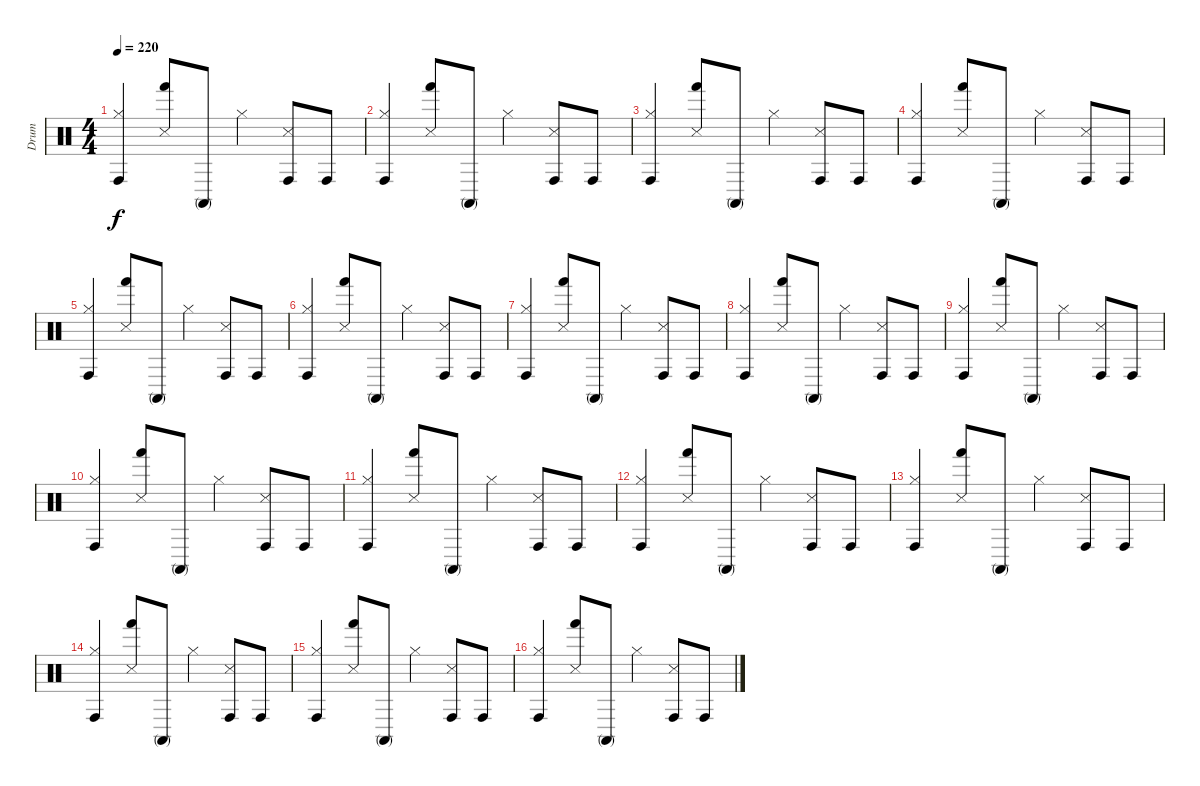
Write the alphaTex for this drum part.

\track ("Drum" "Drum") {instrument percussion}
\staff {score}
\articulation defaults
\ts (4 4)
\tempo 220
\clef neutral
\ks c
("Hi-Hat (closed)" "Conga high (hit)").4{dy f} ("Metronome (hit)" "Hand (hit)").8 "Conga high (mute)".8 "Hi-Hat (closed)".4 ("Metronome (hit)" "Conga high (hit)").8 "Conga high (hit)".8 |
("Hi-Hat (closed)" "Conga high (hit)").4 ("Metronome (hit)" "Hand (hit)").8 "Conga high (mute)".8 "Hi-Hat (closed)".4 ("Metronome (hit)" "Conga high (hit)").8 "Conga high (hit)".8 |
("Hi-Hat (closed)" "Conga high (hit)").4 ("Metronome (hit)" "Hand (hit)").8 "Conga high (mute)".8 "Hi-Hat (closed)".4 ("Metronome (hit)" "Conga high (hit)").8 "Conga high (hit)".8 |
("Hi-Hat (closed)" "Conga high (hit)").4 ("Metronome (hit)" "Hand (hit)").8 "Conga high (mute)".8 "Hi-Hat (closed)".4 ("Metronome (hit)" "Conga high (hit)").8 "Conga high (hit)".8 |
("Hi-Hat (closed)" "Conga high (hit)").4 ("Metronome (hit)" "Hand (hit)").8 "Conga high (mute)".8 "Hi-Hat (closed)".4 ("Metronome (hit)" "Conga high (hit)").8 "Conga high (hit)".8 |
("Hi-Hat (closed)" "Conga high (hit)").4 ("Metronome (hit)" "Hand (hit)").8 "Conga high (mute)".8 "Hi-Hat (closed)".4 ("Metronome (hit)" "Conga high (hit)").8 "Conga high (hit)".8 |
("Hi-Hat (closed)" "Conga high (hit)").4 ("Metronome (hit)" "Hand (hit)").8 "Conga high (mute)".8 "Hi-Hat (closed)".4 ("Metronome (hit)" "Conga high (hit)").8 "Conga high (hit)".8 |
("Hi-Hat (closed)" "Conga high (hit)").4 ("Metronome (hit)" "Hand (hit)").8 "Conga high (mute)".8 "Hi-Hat (closed)".4 ("Metronome (hit)" "Conga high (hit)").8 "Conga high (hit)".8 |
("Hi-Hat (closed)" "Conga high (hit)").4 ("Metronome (hit)" "Hand (hit)").8 "Conga high (mute)".8 "Hi-Hat (closed)".4 ("Metronome (hit)" "Conga high (hit)").8 "Conga high (hit)".8 |
("Hi-Hat (closed)" "Conga high (hit)").4 ("Metronome (hit)" "Hand (hit)").8 "Conga high (mute)".8 "Hi-Hat (closed)".4 ("Metronome (hit)" "Conga high (hit)").8 "Conga high (hit)".8 |
("Hi-Hat (closed)" "Conga high (hit)").4 ("Metronome (hit)" "Hand (hit)").8 "Conga high (mute)".8 "Hi-Hat (closed)".4 ("Metronome (hit)" "Conga high (hit)").8 "Conga high (hit)".8 |
("Hi-Hat (closed)" "Conga high (hit)").4 ("Metronome (hit)" "Hand (hit)").8 "Conga high (mute)".8 "Hi-Hat (closed)".4 ("Metronome (hit)" "Conga high (hit)").8 "Conga high (hit)".8 |
("Hi-Hat (closed)" "Conga high (hit)").4 ("Metronome (hit)" "Hand (hit)").8 "Conga high (mute)".8 "Hi-Hat (closed)".4 ("Metronome (hit)" "Conga high (hit)").8 "Conga high (hit)".8 |
("Hi-Hat (closed)" "Conga high (hit)").4 ("Metronome (hit)" "Hand (hit)").8 "Conga high (mute)".8 "Hi-Hat (closed)".4 ("Metronome (hit)" "Conga high (hit)").8 "Conga high (hit)".8 |
("Hi-Hat (closed)" "Conga high (hit)").4 ("Metronome (hit)" "Hand (hit)").8 "Conga high (mute)".8 "Hi-Hat (closed)".4 ("Metronome (hit)" "Conga high (hit)").8 "Conga high (hit)".8 |
("Hi-Hat (closed)" "Conga high (hit)").4 ("Metronome (hit)" "Hand (hit)").8 "Conga high (mute)".8 "Hi-Hat (closed)".4 ("Metronome (hit)" "Conga high (hit)").8 "Conga high (hit)".8
